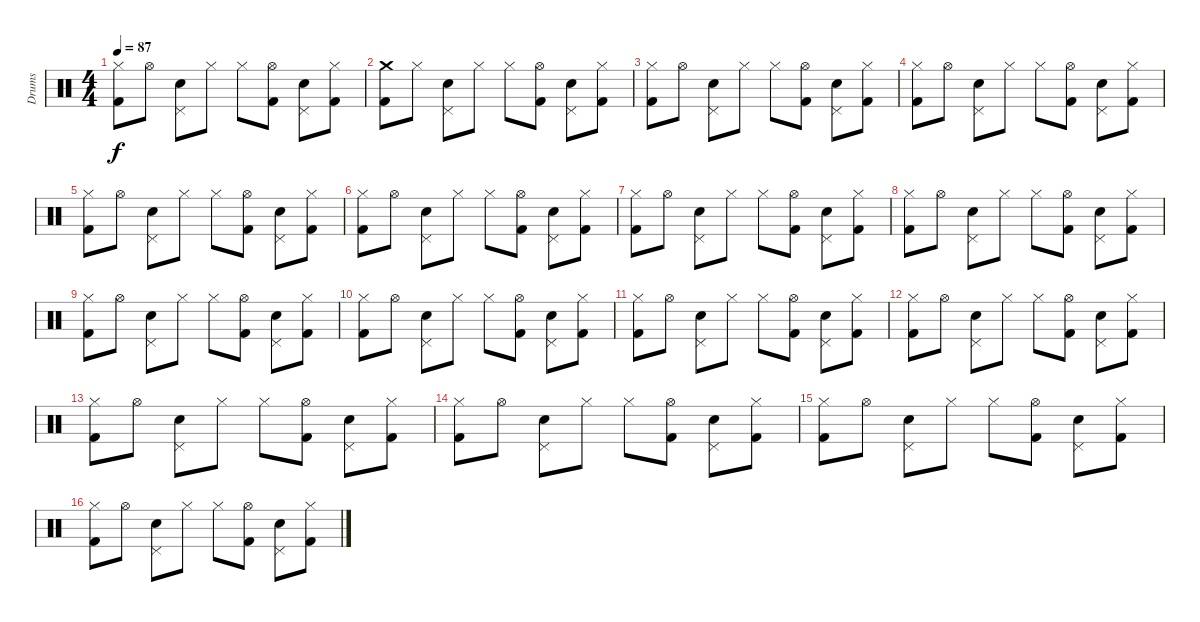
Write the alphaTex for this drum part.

\track ("Drums" "Drums") {instrument percussion}
\staff {score}
\articulation defaults
\ts (4 4)
\tempo 87
\clef neutral
\ks c
("Hi-Hat (closed)" "Kick (hit) 2").8{dy f} "Hi-Hat (open)".8 ("Pedal Hi-Hat (hit)" "Electric Snare (hit)").8 "Hi-Hat (closed)".8 "Hi-Hat (closed)".8 ("Hi-Hat (open)" "Kick (hit) 2").8 ("Pedal Hi-Hat (hit)" "Electric Snare (hit)").8 ("Hi-Hat (closed)" "Kick (hit) 2").8 |
("Crash medium (hit)" "Kick (hit) 2").8 "Hi-Hat (closed)".8 ("Pedal Hi-Hat (hit)" "Electric Snare (hit)").8 "Hi-Hat (closed)".8 "Hi-Hat (closed)".8 ("Hi-Hat (open)" "Kick (hit) 2").8 ("Pedal Hi-Hat (hit)" "Electric Snare (hit)").8 ("Hi-Hat (closed)" "Kick (hit) 2").8 |
("Hi-Hat (closed)" "Kick (hit) 2").8 "Hi-Hat (open)".8 ("Pedal Hi-Hat (hit)" "Electric Snare (hit)").8 "Hi-Hat (closed)".8 "Hi-Hat (closed)".8 ("Hi-Hat (open)" "Kick (hit) 2").8 ("Pedal Hi-Hat (hit)" "Electric Snare (hit)").8 ("Hi-Hat (closed)" "Kick (hit) 2").8 |
("Hi-Hat (closed)" "Kick (hit) 2").8 "Hi-Hat (open)".8 ("Pedal Hi-Hat (hit)" "Electric Snare (hit)").8 "Hi-Hat (closed)".8 "Hi-Hat (closed)".8 ("Hi-Hat (open)" "Kick (hit) 2").8 ("Pedal Hi-Hat (hit)" "Electric Snare (hit)").8 ("Hi-Hat (closed)" "Kick (hit) 2").8 |
("Hi-Hat (closed)" "Kick (hit) 2").8 "Hi-Hat (open)".8 ("Pedal Hi-Hat (hit)" "Electric Snare (hit)").8 "Hi-Hat (closed)".8 "Hi-Hat (closed)".8 ("Hi-Hat (open)" "Kick (hit) 2").8 ("Pedal Hi-Hat (hit)" "Electric Snare (hit)").8 ("Hi-Hat (closed)" "Kick (hit) 2").8 |
("Hi-Hat (closed)" "Kick (hit) 2").8 "Hi-Hat (open)".8 ("Pedal Hi-Hat (hit)" "Electric Snare (hit)").8 "Hi-Hat (closed)".8 "Hi-Hat (closed)".8 ("Hi-Hat (open)" "Kick (hit) 2").8 ("Pedal Hi-Hat (hit)" "Electric Snare (hit)").8 ("Hi-Hat (closed)" "Kick (hit) 2").8 |
("Hi-Hat (closed)" "Kick (hit) 2").8 "Hi-Hat (open)".8 ("Pedal Hi-Hat (hit)" "Electric Snare (hit)").8 "Hi-Hat (closed)".8 "Hi-Hat (closed)".8 ("Hi-Hat (open)" "Kick (hit) 2").8 ("Pedal Hi-Hat (hit)" "Electric Snare (hit)").8 ("Hi-Hat (closed)" "Kick (hit) 2").8 |
("Hi-Hat (closed)" "Kick (hit) 2").8 "Hi-Hat (open)".8 ("Pedal Hi-Hat (hit)" "Electric Snare (hit)").8 "Hi-Hat (closed)".8 "Hi-Hat (closed)".8 ("Hi-Hat (open)" "Kick (hit) 2").8 ("Pedal Hi-Hat (hit)" "Electric Snare (hit)").8 ("Hi-Hat (closed)" "Kick (hit) 2").8 |
("Hi-Hat (closed)" "Kick (hit) 2").8 "Hi-Hat (open)".8 ("Pedal Hi-Hat (hit)" "Electric Snare (hit)").8 "Hi-Hat (closed)".8 "Hi-Hat (closed)".8 ("Hi-Hat (open)" "Kick (hit) 2").8 ("Pedal Hi-Hat (hit)" "Electric Snare (hit)").8 ("Hi-Hat (closed)" "Kick (hit) 2").8 |
("Hi-Hat (closed)" "Kick (hit) 2").8 "Hi-Hat (open)".8 ("Pedal Hi-Hat (hit)" "Electric Snare (hit)").8 "Hi-Hat (closed)".8 "Hi-Hat (closed)".8 ("Hi-Hat (open)" "Kick (hit) 2").8 ("Pedal Hi-Hat (hit)" "Electric Snare (hit)").8 ("Hi-Hat (closed)" "Kick (hit) 2").8 |
("Hi-Hat (closed)" "Kick (hit) 2").8 "Hi-Hat (open)".8 ("Pedal Hi-Hat (hit)" "Electric Snare (hit)").8 "Hi-Hat (closed)".8 "Hi-Hat (closed)".8 ("Hi-Hat (open)" "Kick (hit) 2").8 ("Pedal Hi-Hat (hit)" "Electric Snare (hit)").8 ("Hi-Hat (closed)" "Kick (hit) 2").8 |
("Hi-Hat (closed)" "Kick (hit) 2").8 "Hi-Hat (open)".8 ("Pedal Hi-Hat (hit)" "Electric Snare (hit)").8 "Hi-Hat (closed)".8 "Hi-Hat (closed)".8 ("Hi-Hat (open)" "Kick (hit) 2").8 ("Pedal Hi-Hat (hit)" "Electric Snare (hit)").8 ("Hi-Hat (closed)" "Kick (hit) 2").8 |
("Hi-Hat (closed)" "Kick (hit) 2").8 "Hi-Hat (open)".8 ("Pedal Hi-Hat (hit)" "Electric Snare (hit)").8 "Hi-Hat (closed)".8 "Hi-Hat (closed)".8 ("Hi-Hat (open)" "Kick (hit) 2").8 ("Pedal Hi-Hat (hit)" "Electric Snare (hit)").8 ("Hi-Hat (closed)" "Kick (hit) 2").8 |
("Hi-Hat (closed)" "Kick (hit) 2").8 "Hi-Hat (open)".8 ("Pedal Hi-Hat (hit)" "Electric Snare (hit)").8 "Hi-Hat (closed)".8 "Hi-Hat (closed)".8 ("Hi-Hat (open)" "Kick (hit) 2").8 ("Pedal Hi-Hat (hit)" "Electric Snare (hit)").8 ("Hi-Hat (closed)" "Kick (hit) 2").8 |
("Hi-Hat (closed)" "Kick (hit) 2").8 "Hi-Hat (open)".8 ("Pedal Hi-Hat (hit)" "Electric Snare (hit)").8 "Hi-Hat (closed)".8 "Hi-Hat (closed)".8 ("Hi-Hat (open)" "Kick (hit) 2").8 ("Pedal Hi-Hat (hit)" "Electric Snare (hit)").8 ("Hi-Hat (closed)" "Kick (hit) 2").8 |
("Hi-Hat (closed)" "Kick (hit) 2").8 "Hi-Hat (open)".8 ("Pedal Hi-Hat (hit)" "Electric Snare (hit)").8 "Hi-Hat (closed)".8 "Hi-Hat (closed)".8 ("Hi-Hat (open)" "Kick (hit) 2").8 ("Pedal Hi-Hat (hit)" "Electric Snare (hit)").8 ("Hi-Hat (closed)" "Kick (hit) 2").8
